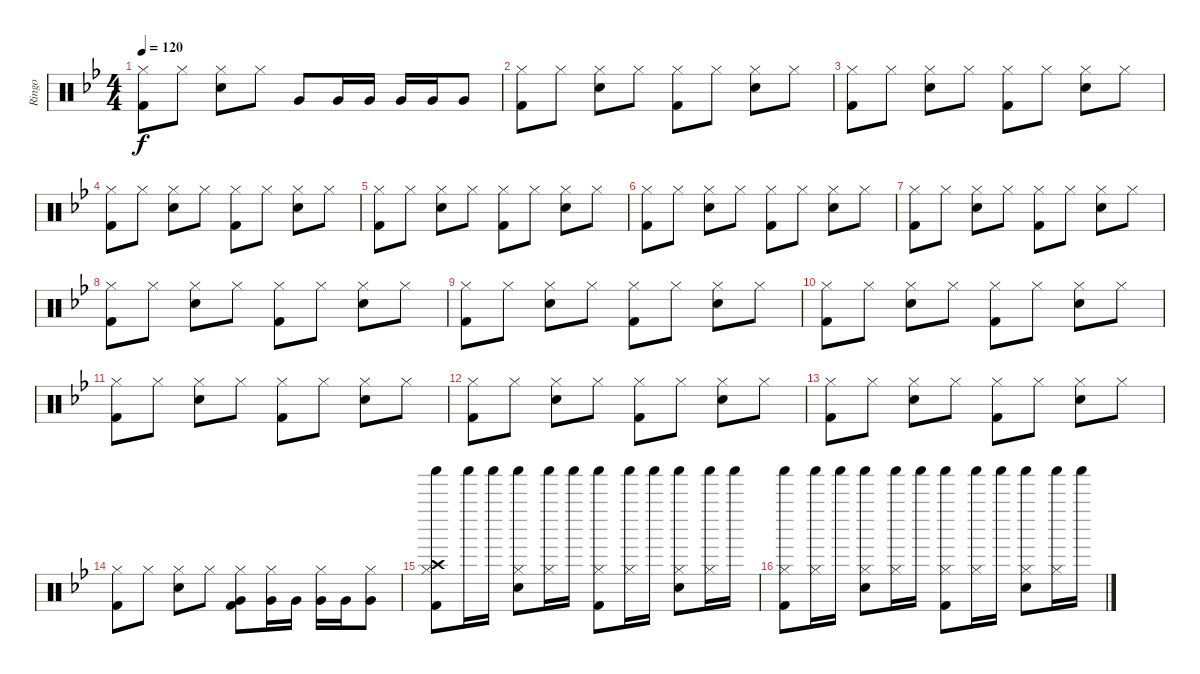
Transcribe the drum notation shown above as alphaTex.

\track ("Ringo" "Ringo") {instrument percussion}
\staff {score}
\articulation defaults
\ts (4 4)
\tempo 120
\clef neutral
\ks bb
("Hi-Hat (closed)" "Kick (hit) 2").8{dy f} "Hi-Hat (closed)".8 ("Hi-Hat (closed)" "Snare (hit) 2").8 "Hi-Hat (closed)".8 "Very Low Tom (hit)".8 "Very Low Tom (hit)".16 "Very Low Tom (hit)".16 "Very Low Tom (hit)".16 "Very Low Tom (hit)".16 "Very Low Tom (hit)".8 |
("Hi-Hat (closed)" "Kick (hit) 2").8 "Hi-Hat (closed)".8 ("Hi-Hat (closed)" "Snare (hit) 2").8 "Hi-Hat (closed)".8 ("Hi-Hat (closed)" "Kick (hit) 2").8 "Hi-Hat (closed)".8 ("Hi-Hat (closed)" "Snare (hit) 2").8 "Hi-Hat (closed)".8 |
("Hi-Hat (closed)" "Kick (hit) 2").8 "Hi-Hat (closed)".8 ("Hi-Hat (closed)" "Snare (hit) 2").8 "Hi-Hat (closed)".8 ("Hi-Hat (closed)" "Kick (hit) 2").8 "Hi-Hat (closed)".8 ("Hi-Hat (closed)" "Snare (hit) 2").8 "Hi-Hat (closed)".8 |
("Hi-Hat (closed)" "Kick (hit) 2").8 "Hi-Hat (closed)".8 ("Hi-Hat (closed)" "Snare (hit) 2").8 "Hi-Hat (closed)".8 ("Hi-Hat (closed)" "Kick (hit) 2").8 "Hi-Hat (closed)".8 ("Hi-Hat (closed)" "Snare (hit) 2").8 "Hi-Hat (closed)".8 |
("Hi-Hat (closed)" "Kick (hit) 2").8 "Hi-Hat (closed)".8 ("Hi-Hat (closed)" "Snare (hit) 2").8 "Hi-Hat (closed)".8 ("Hi-Hat (closed)" "Kick (hit) 2").8 "Hi-Hat (closed)".8 ("Hi-Hat (closed)" "Snare (hit) 2").8 "Hi-Hat (closed)".8 |
("Hi-Hat (closed)" "Kick (hit) 2").8 "Hi-Hat (closed)".8 ("Hi-Hat (closed)" "Snare (hit) 2").8 "Hi-Hat (closed)".8 ("Hi-Hat (closed)" "Kick (hit) 2").8 "Hi-Hat (closed)".8 ("Hi-Hat (closed)" "Snare (hit) 2").8 "Hi-Hat (closed)".8 |
("Hi-Hat (closed)" "Kick (hit) 2").8 "Hi-Hat (closed)".8 ("Hi-Hat (closed)" "Snare (hit) 2").8 "Hi-Hat (closed)".8 ("Hi-Hat (closed)" "Kick (hit) 2").8 "Hi-Hat (closed)".8 ("Hi-Hat (closed)" "Snare (hit) 2").8 "Hi-Hat (closed)".8 |
("Hi-Hat (closed)" "Kick (hit) 2").8 "Hi-Hat (closed)".8 ("Hi-Hat (closed)" "Snare (hit) 2").8 "Hi-Hat (closed)".8 ("Hi-Hat (closed)" "Kick (hit) 2").8 "Hi-Hat (closed)".8 ("Hi-Hat (closed)" "Snare (hit) 2").8 "Hi-Hat (closed)".8 |
("Hi-Hat (closed)" "Kick (hit) 2").8 "Hi-Hat (closed)".8 ("Hi-Hat (closed)" "Snare (hit) 2").8 "Hi-Hat (closed)".8 ("Hi-Hat (closed)" "Kick (hit) 2").8 "Hi-Hat (closed)".8 ("Hi-Hat (closed)" "Snare (hit) 2").8 "Hi-Hat (closed)".8 |
("Hi-Hat (closed)" "Kick (hit) 2").8 "Hi-Hat (closed)".8 ("Hi-Hat (closed)" "Snare (hit) 2").8 "Hi-Hat (closed)".8 ("Hi-Hat (closed)" "Kick (hit) 2").8 "Hi-Hat (closed)".8 ("Hi-Hat (closed)" "Snare (hit) 2").8 "Hi-Hat (closed)".8 |
("Hi-Hat (closed)" "Kick (hit) 2").8 "Hi-Hat (closed)".8 ("Hi-Hat (closed)" "Snare (hit) 2").8 "Hi-Hat (closed)".8 ("Hi-Hat (closed)" "Kick (hit) 2").8 "Hi-Hat (closed)".8 ("Hi-Hat (closed)" "Snare (hit) 2").8 "Hi-Hat (closed)".8 |
("Hi-Hat (closed)" "Kick (hit) 2").8 "Hi-Hat (closed)".8 ("Hi-Hat (closed)" "Snare (hit) 2").8 "Hi-Hat (closed)".8 ("Hi-Hat (closed)" "Kick (hit) 2").8 "Hi-Hat (closed)".8 ("Hi-Hat (closed)" "Snare (hit) 2").8 "Hi-Hat (closed)".8 |
("Hi-Hat (closed)" "Kick (hit) 2").8 "Hi-Hat (closed)".8 ("Hi-Hat (closed)" "Snare (hit) 2").8 "Hi-Hat (closed)".8 ("Hi-Hat (closed)" "Kick (hit) 2").8 "Hi-Hat (closed)".8 ("Hi-Hat (closed)" "Snare (hit) 2").8 "Hi-Hat (closed)".8 |
("Hi-Hat (closed)" "Kick (hit) 2").8 "Hi-Hat (closed)".8 ("Hi-Hat (closed)" "Snare (hit) 2").8 "Hi-Hat (closed)".8 ("Hi-Hat (closed)" "Very Low Tom (hit)" "Kick (hit) 2").8 ("Hi-Hat (closed)" "Very Low Tom (hit)").16 "Very Low Tom (hit)".16 ("Hi-Hat (closed)" "Very Low Tom (hit)").16 "Very Low Tom (hit)".16 ("Hi-Hat (closed)" "Very Low Tom (hit)").8 |
("Hi-Hat (closed)" "Crash high (hit)" "Kick (hit) 2" "Shaker (hit)").8 "Shaker (hit)".16 "Shaker (hit)".16 ("Hi-Hat (closed)" "Snare (hit) 2" "Shaker (hit)").8 ("Hi-Hat (closed)" "Shaker (hit)").16 "Shaker (hit)".16 ("Hi-Hat (closed)" "Kick (hit) 2" "Shaker (hit)").8 ("Hi-Hat (closed)" "Shaker (hit)").16 "Shaker (hit)".16 ("Hi-Hat (closed)" "Snare (hit) 2" "Shaker (hit)").8 ("Hi-Hat (closed)" "Shaker (hit)").16 "Shaker (hit)".16 |
("Hi-Hat (closed)" "Kick (hit) 2" "Shaker (hit)").8 ("Hi-Hat (closed)" "Shaker (hit)").16 "Shaker (hit)".16 ("Hi-Hat (closed)" "Snare (hit) 2" "Shaker (hit)").8 ("Hi-Hat (closed)" "Shaker (hit)").16 "Shaker (hit)".16 ("Hi-Hat (closed)" "Kick (hit) 2" "Shaker (hit)").8 ("Hi-Hat (closed)" "Shaker (hit)").16 "Shaker (hit)".16 ("Hi-Hat (closed)" "Snare (hit) 2" "Shaker (hit)").8 ("Hi-Hat (closed)" "Shaker (hit)").16 "Shaker (hit)".16
